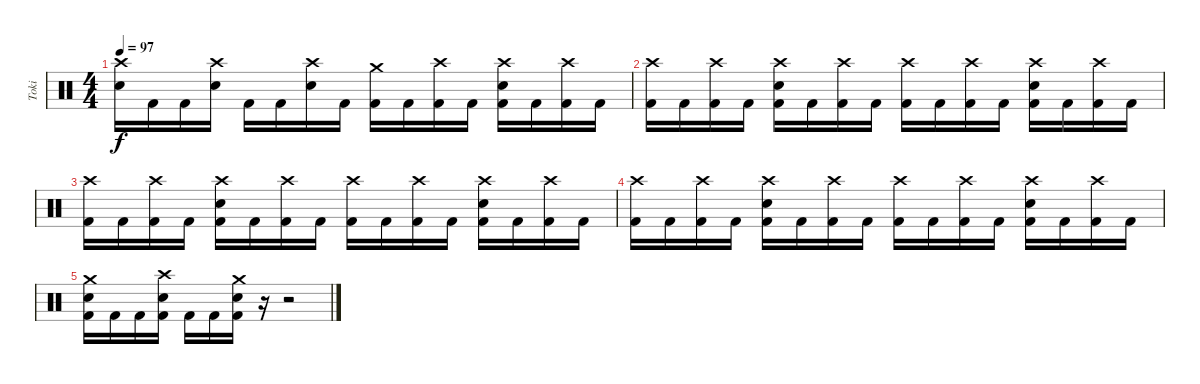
\track ("Toki" "Toki") {instrument percussion}
\staff {score}
\articulation defaults
\ts (4 4)
\tempo 97
\clef neutral
\ks c
("Crash high (hit)" "Electric Snare (hit)").16{dy f} "Kick (hit) 2".16 "Kick (hit) 2".16 ("Crash high (hit)" "Electric Snare (hit)").16 "Kick (hit) 2".16 "Kick (hit) 2".16 ("Crash high (hit)" "Electric Snare (hit)").16 "Kick (hit) 2".16 ("Crash medium (hit)" "Kick (hit) 2").16 "Kick (hit) 2".16 ("Crash high (hit)" "Kick (hit) 2").16 "Kick (hit) 2".16 ("Crash high (hit)" "Electric Snare (hit)" "Kick (hit) 2").16 "Kick (hit) 2".16 ("Crash high (hit)" "Kick (hit) 2").16 "Kick (hit) 2".16 |
("Crash high (hit)" "Kick (hit) 2").16 "Kick (hit) 2".16 ("Crash high (hit)" "Kick (hit) 2").16 "Kick (hit) 2".16 ("Crash high (hit)" "Electric Snare (hit)" "Kick (hit) 2").16 "Kick (hit) 2".16 ("Crash high (hit)" "Kick (hit) 2").16 "Kick (hit) 2".16 ("Crash high (hit)" "Kick (hit) 2").16 "Kick (hit) 2".16 ("Crash high (hit)" "Kick (hit) 2").16 "Kick (hit) 2".16 ("Crash high (hit)" "Electric Snare (hit)" "Kick (hit) 2").16 "Kick (hit) 2".16 ("Crash high (hit)" "Kick (hit) 2").16 "Kick (hit) 2".16 |
("Crash high (hit)" "Kick (hit) 2").16 "Kick (hit) 2".16 ("Crash high (hit)" "Kick (hit) 2").16 "Kick (hit) 2".16 ("Crash high (hit)" "Electric Snare (hit)" "Kick (hit) 2").16 "Kick (hit) 2".16 ("Crash high (hit)" "Kick (hit) 2").16 "Kick (hit) 2".16 ("Crash high (hit)" "Kick (hit) 2").16 "Kick (hit) 2".16 ("Crash high (hit)" "Kick (hit) 2").16 "Kick (hit) 2".16 ("Crash high (hit)" "Electric Snare (hit)" "Kick (hit) 2").16 "Kick (hit) 2".16 ("Crash high (hit)" "Kick (hit) 2").16 "Kick (hit) 2".16 |
("Crash high (hit)" "Kick (hit) 2").16 "Kick (hit) 2".16 ("Crash high (hit)" "Kick (hit) 2").16 "Kick (hit) 2".16 ("Crash high (hit)" "Electric Snare (hit)" "Kick (hit) 2").16 "Kick (hit) 2".16 ("Crash high (hit)" "Kick (hit) 2").16 "Kick (hit) 2".16 ("Crash high (hit)" "Kick (hit) 2").16 "Kick (hit) 2".16 ("Crash high (hit)" "Kick (hit) 2").16 "Kick (hit) 2".16 ("Crash high (hit)" "Electric Snare (hit)" "Kick (hit) 2").16 "Kick (hit) 2".16 ("Crash high (hit)" "Kick (hit) 2").16 "Kick (hit) 2".16 |
("Crash medium (hit)" "Electric Snare (hit)" "Kick (hit) 2").16 "Kick (hit) 2".16 "Kick (hit) 2".16 ("Crash high (hit)" "Electric Snare (hit)" "Kick (hit) 2").16 "Kick (hit) 2".16 "Kick (hit) 2".16 ("Crash medium (hit)" "Electric Snare (hit)" "Kick (hit) 2").16 r.16 r.2
